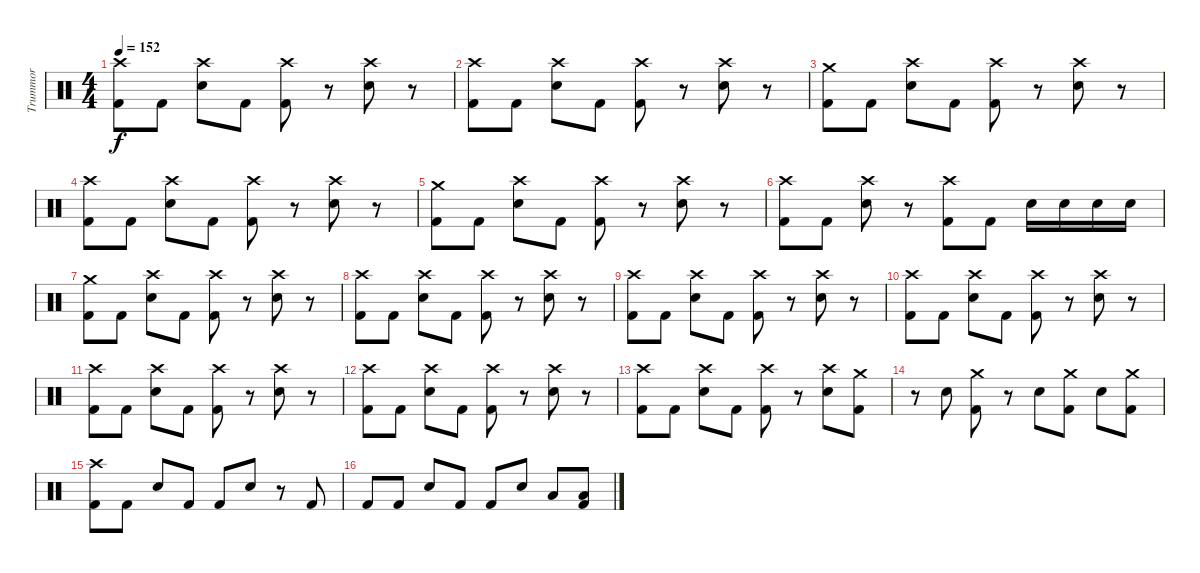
\track ("Trummor" "Trummor") {instrument percussion}
\staff {score}
\articulation defaults
\ts (4 4)
\tempo 152
\clef neutral
\ks c
("Kick (hit) 2" "Crash high (hit)").8{dy f} "Kick (hit) 2".8 ("Electric Snare (hit)" "Crash high (hit)").8 "Kick (hit) 2".8 ("Kick (hit) 2" "Crash high (hit)").8 r.8 ("Electric Snare (hit)" "Crash high (hit)").8 r.8 |
("Kick (hit) 2" "Crash high (hit)").8 "Kick (hit) 2".8 ("Electric Snare (hit)" "Crash high (hit)").8 "Kick (hit) 2".8 ("Kick (hit) 2" "Crash high (hit)").8 r.8 ("Electric Snare (hit)" "Crash high (hit)").8 r.8 |
("Kick (hit) 2" "Crash medium (hit)").8 "Kick (hit) 2".8 ("Electric Snare (hit)" "Crash high (hit)").8 "Kick (hit) 2".8 ("Kick (hit) 2" "Crash high (hit)").8 r.8 ("Electric Snare (hit)" "Crash high (hit)").8 r.8 |
("Kick (hit) 2" "Crash high (hit)").8 "Kick (hit) 2".8 ("Electric Snare (hit)" "Crash high (hit)").8 "Kick (hit) 2".8 ("Kick (hit) 2" "Crash high (hit)").8 r.8 ("Electric Snare (hit)" "Crash high (hit)").8 r.8 |
("Kick (hit) 2" "Crash medium (hit)").8 "Kick (hit) 2".8 ("Crash high (hit)" "Electric Snare (hit)").8 "Kick (hit) 2".8 ("Kick (hit) 2" "Crash high (hit)").8 r.8 ("Crash high (hit)" "Electric Snare (hit)").8 r.8 |
("Kick (hit) 2" "Crash high (hit)").8 "Kick (hit) 2".8 ("Electric Snare (hit)" "Crash high (hit)").8 r.8 ("Kick (hit) 2" "Crash high (hit)").8 "Kick (hit) 2".8 "Electric Snare (hit)".16 "Electric Snare (hit)".16 "Electric Snare (hit)".16 "Electric Snare (hit)".16 |
("Kick (hit) 2" "Crash medium (hit)").8 "Kick (hit) 2".8 ("Electric Snare (hit)" "Crash high (hit)").8 "Kick (hit) 2".8 ("Kick (hit) 2" "Crash high (hit)").8 r.8 ("Electric Snare (hit)" "Crash high (hit)").8 r.8 |
("Kick (hit) 2" "Crash high (hit)").8 "Kick (hit) 2".8 ("Electric Snare (hit)" "Crash high (hit)").8 "Kick (hit) 2".8 ("Kick (hit) 2" "Crash high (hit)").8 r.8 ("Electric Snare (hit)" "Crash high (hit)").8 r.8 |
("Kick (hit) 2" "Crash high (hit)").8 "Kick (hit) 2".8 ("Electric Snare (hit)" "Crash high (hit)").8 "Kick (hit) 2".8 ("Kick (hit) 2" "Crash high (hit)").8 r.8 ("Electric Snare (hit)" "Crash high (hit)").8 r.8 |
("Kick (hit) 2" "Crash high (hit)").8 "Kick (hit) 2".8 ("Electric Snare (hit)" "Crash high (hit)").8 "Kick (hit) 2".8 ("Kick (hit) 2" "Crash high (hit)").8 r.8 ("Electric Snare (hit)" "Crash high (hit)").8 r.8 |
("Kick (hit) 2" "Crash high (hit)").8 "Kick (hit) 2".8 ("Electric Snare (hit)" "Crash high (hit)").8 "Kick (hit) 2".8 ("Kick (hit) 2" "Crash high (hit)").8 r.8 ("Electric Snare (hit)" "Crash high (hit)").8 r.8 |
("Kick (hit) 2" "Crash high (hit)").8 "Kick (hit) 2".8 ("Electric Snare (hit)" "Crash high (hit)").8 "Kick (hit) 2".8 ("Kick (hit) 2" "Crash high (hit)").8 r.8 ("Electric Snare (hit)" "Crash high (hit)").8 r.8 |
("Kick (hit) 2" "Crash high (hit)").8 "Kick (hit) 2".8 ("Crash high (hit)" "Electric Snare (hit)").8 "Kick (hit) 2".8 ("Kick (hit) 2" "Crash high (hit)").8 r.8 ("Crash high (hit)" "Electric Snare (hit)").8 ("Kick (hit) 2" "Crash medium (hit)").8 |
r.8 "Electric Snare (hit)".8 ("Kick (hit) 2" "Crash medium (hit)").8 r.8 "Electric Snare (hit)".8 ("Kick (hit) 2" "Crash medium (hit)").8 "Electric Snare (hit)".8 ("Kick (hit) 2" "Crash medium (hit)").8 |
("Kick (hit) 2" "Crash high (hit)").8 "Kick (hit) 2".8 "Electric Snare (hit)".8 "Kick (hit) 2".8 "Kick (hit) 2".8 "Electric Snare (hit)".8 r.8 "Kick (hit) 2".8 |
"Kick (hit) 2".8 "Kick (hit) 2".8 "Electric Snare (hit)".8 "Kick (hit) 2".8 "Kick (hit) 2".8 "Electric Snare (hit)".8 "Low Tom (hit)".8 ("Kick (hit) 2" "Low Tom (hit)").8
